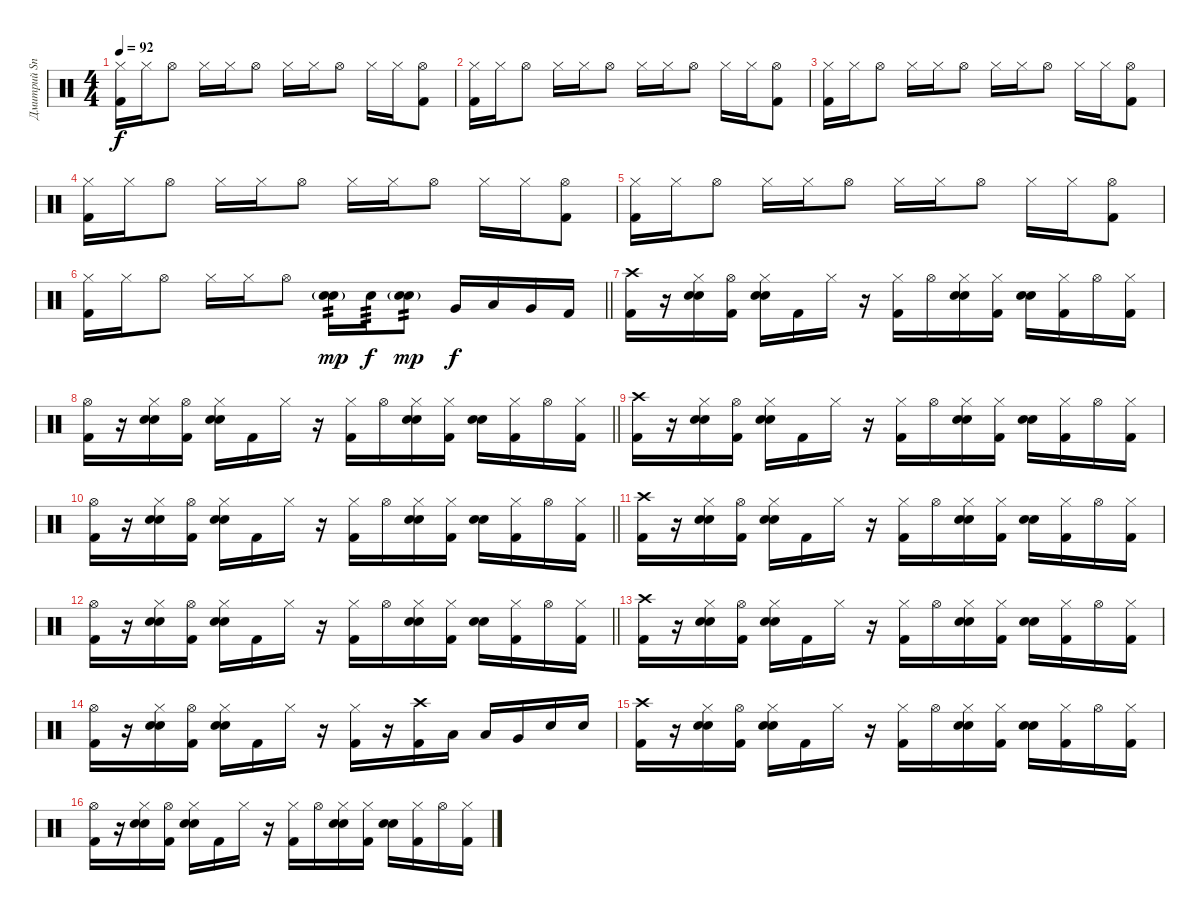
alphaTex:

\track ("Дмитрий Snake Хакимов" "Дмитрий Sn") {instrument percussion}
\staff {score}
\articulation defaults
\ts (4 4)
\tempo 92
\clef neutral
\ks c
("Hi-Hat (closed)" "Kick (hit) 2").16{dy f} "Hi-Hat (closed)".16 "Hi-Hat (open)".8 "Hi-Hat (closed)".16 "Hi-Hat (closed)".16 "Hi-Hat (open)".8 "Hi-Hat (closed)".16 "Hi-Hat (closed)".16 "Hi-Hat (open)".8 "Hi-Hat (closed)".16 "Hi-Hat (closed)".16 ("Hi-Hat (open)" "Kick (hit) 2").8 |
("Hi-Hat (closed)" "Kick (hit) 2").16 "Hi-Hat (closed)".16 "Hi-Hat (open)".8 "Hi-Hat (closed)".16 "Hi-Hat (closed)".16 "Hi-Hat (open)".8 "Hi-Hat (closed)".16 "Hi-Hat (closed)".16 "Hi-Hat (open)".8 "Hi-Hat (closed)".16 "Hi-Hat (closed)".16 ("Hi-Hat (open)" "Kick (hit) 2").8 |
("Hi-Hat (closed)" "Kick (hit) 2").16 "Hi-Hat (closed)".16 "Hi-Hat (open)".8 "Hi-Hat (closed)".16 "Hi-Hat (closed)".16 "Hi-Hat (open)".8 "Hi-Hat (closed)".16 "Hi-Hat (closed)".16 "Hi-Hat (open)".8 "Hi-Hat (closed)".16 "Hi-Hat (closed)".16 ("Hi-Hat (open)" "Kick (hit) 2").8 |
("Hi-Hat (closed)" "Kick (hit) 2").16 "Hi-Hat (closed)".16 "Hi-Hat (open)".8 "Hi-Hat (closed)".16 "Hi-Hat (closed)".16 "Hi-Hat (open)".8 "Hi-Hat (closed)".16 "Hi-Hat (closed)".16 "Hi-Hat (open)".8 "Hi-Hat (closed)".16 "Hi-Hat (closed)".16 ("Hi-Hat (open)" "Kick (hit) 2").8 |
("Hi-Hat (closed)" "Kick (hit) 2").16 "Hi-Hat (closed)".16 "Hi-Hat (open)".8 "Hi-Hat (closed)".16 "Hi-Hat (closed)".16 "Hi-Hat (open)".8 "Hi-Hat (closed)".16 "Hi-Hat (closed)".16 "Hi-Hat (open)".8 "Hi-Hat (closed)".16 "Hi-Hat (closed)".16 ("Hi-Hat (open)" "Kick (hit) 2").8 |
\barLineRight lightlight
("Hi-Hat (closed)" "Kick (hit) 2").16 "Hi-Hat (closed)".16 "Hi-Hat (open)".8 "Hi-Hat (closed)".16 "Hi-Hat (closed)".16 "Hi-Hat (open)".8 ("Snare (hit) 2"{g} "Electric Snare (hit)").16{tp 2 dy mp} "Electric Snare (hit)".16{tp 3 dy f} ("Snare (hit) 2"{g} "Electric Snare (hit)").8{tp 2 dy mp} "Very Low Tom (hit)".16{dy f} "Low Tom (hit)".16 "Very Low Tom (hit)".16 "Kick (hit) 2".16 |
\section ("" "")
("Crash high (hit)" "Kick (hit) 2").16 r.16 ("Hi-Hat (closed)" "Snare (hit) 2" "Electric Snare (hit)").16 ("Hi-Hat (open)" "Kick (hit) 2").16 ("Hi-Hat (closed)" "Snare (hit) 2" "Electric Snare (hit)").16 "Kick (hit) 2".16 "Hi-Hat (closed)".16 r.16 ("Hi-Hat (closed)" "Kick (hit) 2").16 "Hi-Hat (open)".16 ("Hi-Hat (closed)" "Snare (hit) 2" "Electric Snare (hit)").16 ("Hi-Hat (closed)" "Kick (hit) 2").16 ("Snare (hit) 2" "Electric Snare (hit)").16 ("Hi-Hat (closed)" "Kick (hit) 2").16 "Hi-Hat (open)".16 ("Hi-Hat (closed)" "Kick (hit) 2").16 |
\barLineRight lightlight
("Hi-Hat (open)" "Kick (hit) 2").16 r.16 ("Hi-Hat (closed)" "Snare (hit) 2" "Electric Snare (hit)").16 ("Hi-Hat (open)" "Kick (hit) 2").16 ("Hi-Hat (closed)" "Snare (hit) 2" "Electric Snare (hit)").16 "Kick (hit) 2".16 "Hi-Hat (closed)".16 r.16 ("Hi-Hat (closed)" "Kick (hit) 2").16 "Hi-Hat (open)".16 ("Hi-Hat (closed)" "Snare (hit) 2" "Electric Snare (hit)").16 ("Hi-Hat (closed)" "Kick (hit) 2").16 ("Snare (hit) 2" "Electric Snare (hit)").16 ("Hi-Hat (closed)" "Kick (hit) 2").16 "Hi-Hat (open)".16 ("Hi-Hat (closed)" "Kick (hit) 2").16 |
("Crash high (hit)" "Kick (hit) 2").16 r.16 ("Hi-Hat (closed)" "Snare (hit) 2" "Electric Snare (hit)").16 ("Hi-Hat (open)" "Kick (hit) 2").16 ("Hi-Hat (closed)" "Snare (hit) 2" "Electric Snare (hit)").16 "Kick (hit) 2".16 "Hi-Hat (closed)".16 r.16 ("Hi-Hat (closed)" "Kick (hit) 2").16 "Hi-Hat (open)".16 ("Hi-Hat (closed)" "Snare (hit) 2" "Electric Snare (hit)").16 ("Hi-Hat (closed)" "Kick (hit) 2").16 ("Snare (hit) 2" "Electric Snare (hit)").16 ("Hi-Hat (closed)" "Kick (hit) 2").16 "Hi-Hat (open)".16 ("Hi-Hat (closed)" "Kick (hit) 2").16 |
\barLineRight lightlight
("Hi-Hat (open)" "Kick (hit) 2").16 r.16 ("Hi-Hat (closed)" "Snare (hit) 2" "Electric Snare (hit)").16 ("Hi-Hat (open)" "Kick (hit) 2").16 ("Hi-Hat (closed)" "Snare (hit) 2" "Electric Snare (hit)").16 "Kick (hit) 2".16 "Hi-Hat (closed)".16 r.16 ("Hi-Hat (closed)" "Kick (hit) 2").16 "Hi-Hat (open)".16 ("Hi-Hat (closed)" "Snare (hit) 2" "Electric Snare (hit)").16 ("Hi-Hat (closed)" "Kick (hit) 2").16 ("Snare (hit) 2" "Electric Snare (hit)").16 ("Hi-Hat (closed)" "Kick (hit) 2").16 "Hi-Hat (open)".16 ("Hi-Hat (closed)" "Kick (hit) 2").16 |
("Crash high (hit)" "Kick (hit) 2").16 r.16 ("Hi-Hat (closed)" "Snare (hit) 2" "Electric Snare (hit)").16 ("Hi-Hat (open)" "Kick (hit) 2").16 ("Hi-Hat (closed)" "Snare (hit) 2" "Electric Snare (hit)").16 "Kick (hit) 2".16 "Hi-Hat (closed)".16 r.16 ("Hi-Hat (closed)" "Kick (hit) 2").16 "Hi-Hat (open)".16 ("Hi-Hat (closed)" "Snare (hit) 2" "Electric Snare (hit)").16 ("Hi-Hat (closed)" "Kick (hit) 2").16 ("Snare (hit) 2" "Electric Snare (hit)").16 ("Hi-Hat (closed)" "Kick (hit) 2").16 "Hi-Hat (open)".16 ("Hi-Hat (closed)" "Kick (hit) 2").16 |
\barLineRight lightlight
("Hi-Hat (open)" "Kick (hit) 2").16 r.16 ("Hi-Hat (closed)" "Snare (hit) 2" "Electric Snare (hit)").16 ("Hi-Hat (open)" "Kick (hit) 2").16 ("Hi-Hat (closed)" "Snare (hit) 2" "Electric Snare (hit)").16 "Kick (hit) 2".16 "Hi-Hat (closed)".16 r.16 ("Hi-Hat (closed)" "Kick (hit) 2").16 "Hi-Hat (open)".16 ("Hi-Hat (closed)" "Snare (hit) 2" "Electric Snare (hit)").16 ("Hi-Hat (closed)" "Kick (hit) 2").16 ("Snare (hit) 2" "Electric Snare (hit)").16 ("Hi-Hat (closed)" "Kick (hit) 2").16 "Hi-Hat (open)".16 ("Hi-Hat (closed)" "Kick (hit) 2").16 |
\section ("" "")
("Crash high (hit)" "Kick (hit) 2").16 r.16 ("Hi-Hat (closed)" "Snare (hit) 2" "Electric Snare (hit)").16 ("Hi-Hat (open)" "Kick (hit) 2").16 ("Hi-Hat (closed)" "Snare (hit) 2" "Electric Snare (hit)").16 "Kick (hit) 2".16 "Hi-Hat (closed)".16 r.16 ("Hi-Hat (closed)" "Kick (hit) 2").16 "Hi-Hat (open)".16 ("Hi-Hat (closed)" "Snare (hit) 2" "Electric Snare (hit)").16 ("Hi-Hat (closed)" "Kick (hit) 2").16 ("Snare (hit) 2" "Electric Snare (hit)").16 ("Hi-Hat (closed)" "Kick (hit) 2").16 "Hi-Hat (open)".16 ("Hi-Hat (closed)" "Kick (hit) 2").16 |
("Hi-Hat (open)" "Kick (hit) 2").16 r.16 ("Hi-Hat (closed)" "Snare (hit) 2" "Electric Snare (hit)").16 ("Hi-Hat (open)" "Kick (hit) 2").16 ("Hi-Hat (closed)" "Snare (hit) 2" "Electric Snare (hit)").16 "Kick (hit) 2".16 "Hi-Hat (closed)".16 r.16 ("Hi-Hat (closed)" "Kick (hit) 2").16 r.16 ("Crash high (hit)" "Kick (hit) 2").16 "Low Tom (hit)".16 "Low Tom (hit)".16 "Very Low Tom (hit)".16 "Electric Snare (hit)".16 "Electric Snare (hit)".16 |
("Crash high (hit)" "Kick (hit) 2").16 r.16 ("Hi-Hat (closed)" "Snare (hit) 2" "Electric Snare (hit)").16 ("Hi-Hat (open)" "Kick (hit) 2").16 ("Hi-Hat (closed)" "Snare (hit) 2" "Electric Snare (hit)").16 "Kick (hit) 2".16 "Hi-Hat (closed)".16 r.16 ("Hi-Hat (closed)" "Kick (hit) 2").16 "Hi-Hat (open)".16 ("Hi-Hat (closed)" "Snare (hit) 2" "Electric Snare (hit)").16 ("Hi-Hat (closed)" "Kick (hit) 2").16 ("Snare (hit) 2" "Electric Snare (hit)").16 ("Hi-Hat (closed)" "Kick (hit) 2").16 "Hi-Hat (open)".16 ("Hi-Hat (closed)" "Kick (hit) 2").16 |
("Hi-Hat (open)" "Kick (hit) 2").16 r.16 ("Hi-Hat (closed)" "Snare (hit) 2" "Electric Snare (hit)").16 ("Hi-Hat (open)" "Kick (hit) 2").16 ("Hi-Hat (closed)" "Snare (hit) 2" "Electric Snare (hit)").16 "Kick (hit) 2".16 "Hi-Hat (closed)".16 r.16 ("Hi-Hat (closed)" "Kick (hit) 2").16 "Hi-Hat (open)".16 ("Hi-Hat (closed)" "Snare (hit) 2" "Electric Snare (hit)").16 ("Hi-Hat (closed)" "Kick (hit) 2").16 ("Snare (hit) 2" "Electric Snare (hit)").16 ("Hi-Hat (closed)" "Kick (hit) 2").16 "Hi-Hat (open)".16 ("Hi-Hat (closed)" "Kick (hit) 2").16
